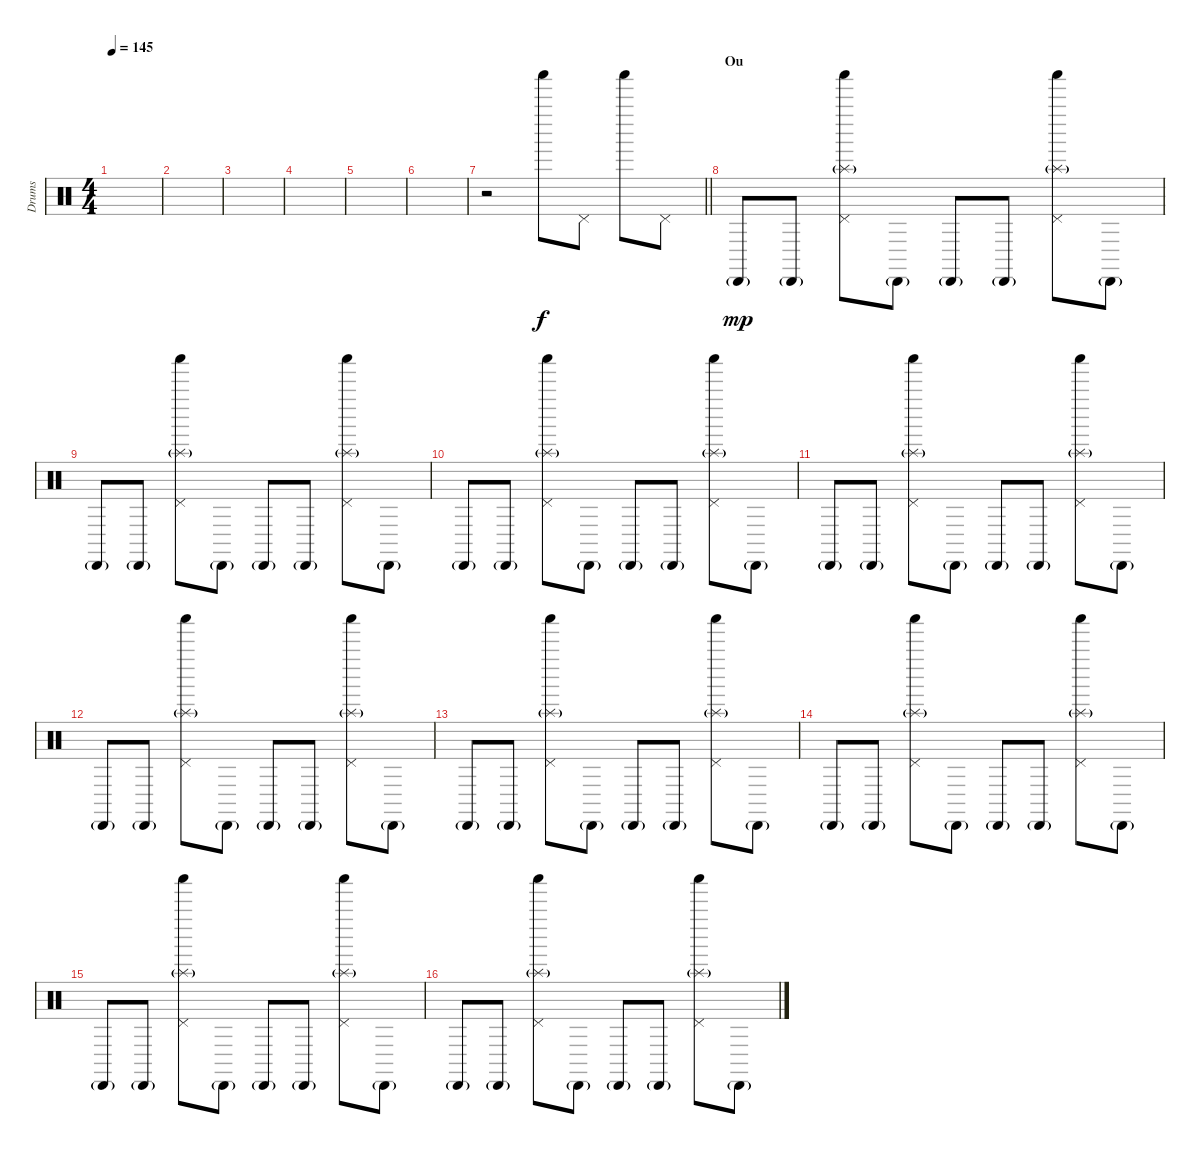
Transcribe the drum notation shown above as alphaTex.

\track ("Drums" "Drums") {instrument percussion}
\staff {score}
\articulation defaults
\ts (4 4)
\tempo 145
\clef neutral
\ks c
|
|
|
|
|
|
\barLineRight lightlight
r.2 "Shaker (hit)".8{dy f} "Pedal Hi-Hat (hit)".8 "Shaker (hit)".8 "Pedal Hi-Hat (hit)".8 |
\section ("" "Ou")
"Cabasa (hit)"{g}.8{dy mp} "Cabasa (hit)"{g}.8 ("Shaker (hit)" "Pedal Hi-Hat (hit)" "Splash (hit)"{g}).8 "Cabasa (hit)"{g}.8 "Cabasa (hit)"{g}.8 "Cabasa (hit)"{g}.8 ("Shaker (hit)" "Pedal Hi-Hat (hit)" "Splash (hit)"{g}).8 "Cabasa (hit)"{g}.8 |
"Cabasa (hit)"{g}.8 "Cabasa (hit)"{g}.8 ("Shaker (hit)" "Pedal Hi-Hat (hit)" "Splash (hit)"{g}).8 "Cabasa (hit)"{g}.8 "Cabasa (hit)"{g}.8 "Cabasa (hit)"{g}.8 ("Shaker (hit)" "Pedal Hi-Hat (hit)" "Splash (hit)"{g}).8 "Cabasa (hit)"{g}.8 |
"Cabasa (hit)"{g}.8 "Cabasa (hit)"{g}.8 ("Shaker (hit)" "Pedal Hi-Hat (hit)" "Splash (hit)"{g}).8 "Cabasa (hit)"{g}.8 "Cabasa (hit)"{g}.8 "Cabasa (hit)"{g}.8 ("Shaker (hit)" "Pedal Hi-Hat (hit)" "Splash (hit)"{g}).8 "Cabasa (hit)"{g}.8 |
"Cabasa (hit)"{g}.8 "Cabasa (hit)"{g}.8 ("Shaker (hit)" "Pedal Hi-Hat (hit)" "Splash (hit)"{g}).8 "Cabasa (hit)"{g}.8 "Cabasa (hit)"{g}.8 "Cabasa (hit)"{g}.8 ("Shaker (hit)" "Pedal Hi-Hat (hit)" "Splash (hit)"{g}).8 "Cabasa (hit)"{g}.8 |
"Cabasa (hit)"{g}.8 "Cabasa (hit)"{g}.8 ("Shaker (hit)" "Pedal Hi-Hat (hit)" "Splash (hit)"{g}).8 "Cabasa (hit)"{g}.8 "Cabasa (hit)"{g}.8 "Cabasa (hit)"{g}.8 ("Shaker (hit)" "Pedal Hi-Hat (hit)" "Splash (hit)"{g}).8 "Cabasa (hit)"{g}.8 |
"Cabasa (hit)"{g}.8 "Cabasa (hit)"{g}.8 ("Shaker (hit)" "Pedal Hi-Hat (hit)" "Splash (hit)"{g}).8 "Cabasa (hit)"{g}.8 "Cabasa (hit)"{g}.8 "Cabasa (hit)"{g}.8 ("Shaker (hit)" "Pedal Hi-Hat (hit)" "Splash (hit)"{g}).8 "Cabasa (hit)"{g}.8 |
"Cabasa (hit)"{g}.8 "Cabasa (hit)"{g}.8 ("Shaker (hit)" "Pedal Hi-Hat (hit)" "Splash (hit)"{g}).8 "Cabasa (hit)"{g}.8 "Cabasa (hit)"{g}.8 "Cabasa (hit)"{g}.8 ("Shaker (hit)" "Pedal Hi-Hat (hit)" "Splash (hit)"{g}).8 "Cabasa (hit)"{g}.8 |
"Cabasa (hit)"{g}.8 "Cabasa (hit)"{g}.8 ("Shaker (hit)" "Pedal Hi-Hat (hit)" "Splash (hit)"{g}).8 "Cabasa (hit)"{g}.8 "Cabasa (hit)"{g}.8 "Cabasa (hit)"{g}.8 ("Shaker (hit)" "Pedal Hi-Hat (hit)" "Splash (hit)"{g}).8 "Cabasa (hit)"{g}.8 |
"Cabasa (hit)"{g}.8 "Cabasa (hit)"{g}.8 ("Shaker (hit)" "Pedal Hi-Hat (hit)" "Splash (hit)"{g}).8 "Cabasa (hit)"{g}.8 "Cabasa (hit)"{g}.8 "Cabasa (hit)"{g}.8 ("Shaker (hit)" "Pedal Hi-Hat (hit)" "Splash (hit)"{g}).8 "Cabasa (hit)"{g}.8
